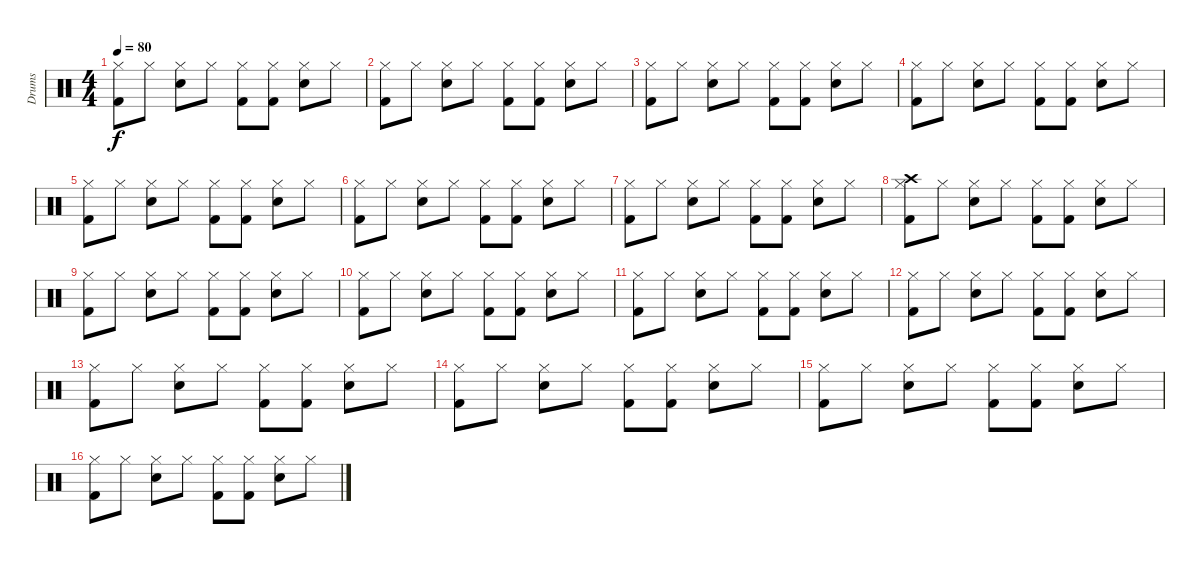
\track ("Drums" "Drums") {instrument percussion}
\staff {score}
\articulation defaults
\ts (4 4)
\tempo 80
\clef neutral
\ks c
("Hi-Hat (closed)" "Kick (hit) 2").8{dy f} "Hi-Hat (closed)".8 ("Hi-Hat (closed)" "Electric Snare (hit)").8 "Hi-Hat (closed)".8 ("Hi-Hat (closed)" "Kick (hit) 2").8 ("Hi-Hat (closed)" "Kick (hit) 2").8 ("Hi-Hat (closed)" "Electric Snare (hit)").8 "Hi-Hat (closed)".8 |
("Hi-Hat (closed)" "Kick (hit) 2").8 "Hi-Hat (closed)".8 ("Hi-Hat (closed)" "Electric Snare (hit)").8 "Hi-Hat (closed)".8 ("Hi-Hat (closed)" "Kick (hit) 2").8 ("Hi-Hat (closed)" "Kick (hit) 2").8 ("Hi-Hat (closed)" "Electric Snare (hit)").8 "Hi-Hat (closed)".8 |
("Hi-Hat (closed)" "Kick (hit) 2").8 "Hi-Hat (closed)".8 ("Hi-Hat (closed)" "Electric Snare (hit)").8 "Hi-Hat (closed)".8 ("Hi-Hat (closed)" "Kick (hit) 2").8 ("Hi-Hat (closed)" "Kick (hit) 2").8 ("Hi-Hat (closed)" "Electric Snare (hit)").8 "Hi-Hat (closed)".8 |
("Hi-Hat (closed)" "Kick (hit) 2").8 "Hi-Hat (closed)".8 ("Hi-Hat (closed)" "Electric Snare (hit)").8 "Hi-Hat (closed)".8 ("Hi-Hat (closed)" "Kick (hit) 2").8 ("Hi-Hat (closed)" "Kick (hit) 2").8 ("Hi-Hat (closed)" "Electric Snare (hit)").8 "Hi-Hat (closed)".8 |
("Hi-Hat (closed)" "Kick (hit) 2").8 "Hi-Hat (closed)".8 ("Hi-Hat (closed)" "Electric Snare (hit)").8 "Hi-Hat (closed)".8 ("Hi-Hat (closed)" "Kick (hit) 2").8 ("Hi-Hat (closed)" "Kick (hit) 2").8 ("Hi-Hat (closed)" "Electric Snare (hit)").8 "Hi-Hat (closed)".8 |
("Hi-Hat (closed)" "Kick (hit) 2").8 "Hi-Hat (closed)".8 ("Hi-Hat (closed)" "Electric Snare (hit)").8 "Hi-Hat (closed)".8 ("Hi-Hat (closed)" "Kick (hit) 2").8 ("Hi-Hat (closed)" "Kick (hit) 2").8 ("Hi-Hat (closed)" "Electric Snare (hit)").8 "Hi-Hat (closed)".8 |
("Hi-Hat (closed)" "Kick (hit) 2").8 "Hi-Hat (closed)".8 ("Hi-Hat (closed)" "Electric Snare (hit)").8 "Hi-Hat (closed)".8 ("Hi-Hat (closed)" "Kick (hit) 2").8 ("Hi-Hat (closed)" "Kick (hit) 2").8 ("Hi-Hat (closed)" "Electric Snare (hit)").8 "Hi-Hat (closed)".8 |
("Crash high (hit)" "Hi-Hat (closed)" "Kick (hit) 2").8 "Hi-Hat (closed)".8 ("Hi-Hat (closed)" "Electric Snare (hit)").8 "Hi-Hat (closed)".8 ("Hi-Hat (closed)" "Kick (hit) 2").8 ("Hi-Hat (closed)" "Kick (hit) 2").8 ("Hi-Hat (closed)" "Electric Snare (hit)").8 "Hi-Hat (closed)".8 |
("Hi-Hat (closed)" "Kick (hit) 2").8 "Hi-Hat (closed)".8 ("Hi-Hat (closed)" "Electric Snare (hit)").8 "Hi-Hat (closed)".8 ("Hi-Hat (closed)" "Kick (hit) 2").8 ("Hi-Hat (closed)" "Kick (hit) 2").8 ("Hi-Hat (closed)" "Electric Snare (hit)").8 "Hi-Hat (closed)".8 |
("Hi-Hat (closed)" "Kick (hit) 2").8 "Hi-Hat (closed)".8 ("Hi-Hat (closed)" "Electric Snare (hit)").8 "Hi-Hat (closed)".8 ("Hi-Hat (closed)" "Kick (hit) 2").8 ("Hi-Hat (closed)" "Kick (hit) 2").8 ("Hi-Hat (closed)" "Electric Snare (hit)").8 "Hi-Hat (closed)".8 |
("Hi-Hat (closed)" "Kick (hit) 2").8 "Hi-Hat (closed)".8 ("Hi-Hat (closed)" "Electric Snare (hit)").8 "Hi-Hat (closed)".8 ("Hi-Hat (closed)" "Kick (hit) 2").8 ("Hi-Hat (closed)" "Kick (hit) 2").8 ("Hi-Hat (closed)" "Electric Snare (hit)").8 "Hi-Hat (closed)".8 |
("Hi-Hat (closed)" "Kick (hit) 2").8 "Hi-Hat (closed)".8 ("Hi-Hat (closed)" "Electric Snare (hit)").8 "Hi-Hat (closed)".8 ("Hi-Hat (closed)" "Kick (hit) 2").8 ("Hi-Hat (closed)" "Kick (hit) 2").8 ("Hi-Hat (closed)" "Electric Snare (hit)").8 "Hi-Hat (closed)".8 |
("Hi-Hat (closed)" "Kick (hit) 2").8 "Hi-Hat (closed)".8 ("Hi-Hat (closed)" "Electric Snare (hit)").8 "Hi-Hat (closed)".8 ("Hi-Hat (closed)" "Kick (hit) 2").8 ("Hi-Hat (closed)" "Kick (hit) 2").8 ("Hi-Hat (closed)" "Electric Snare (hit)").8 "Hi-Hat (closed)".8 |
("Hi-Hat (closed)" "Kick (hit) 2").8 "Hi-Hat (closed)".8 ("Hi-Hat (closed)" "Electric Snare (hit)").8 "Hi-Hat (closed)".8 ("Hi-Hat (closed)" "Kick (hit) 2").8 ("Hi-Hat (closed)" "Kick (hit) 2").8 ("Hi-Hat (closed)" "Electric Snare (hit)").8 "Hi-Hat (closed)".8 |
("Hi-Hat (closed)" "Kick (hit) 2").8 "Hi-Hat (closed)".8 ("Hi-Hat (closed)" "Electric Snare (hit)").8 "Hi-Hat (closed)".8 ("Hi-Hat (closed)" "Kick (hit) 2").8 ("Hi-Hat (closed)" "Kick (hit) 2").8 ("Hi-Hat (closed)" "Electric Snare (hit)").8 "Hi-Hat (closed)".8 |
("Hi-Hat (closed)" "Kick (hit) 2").8 "Hi-Hat (closed)".8 ("Hi-Hat (closed)" "Electric Snare (hit)").8 "Hi-Hat (closed)".8 ("Hi-Hat (closed)" "Kick (hit) 2").8 ("Hi-Hat (closed)" "Kick (hit) 2").8 ("Hi-Hat (closed)" "Electric Snare (hit)").8 "Hi-Hat (closed)".8
